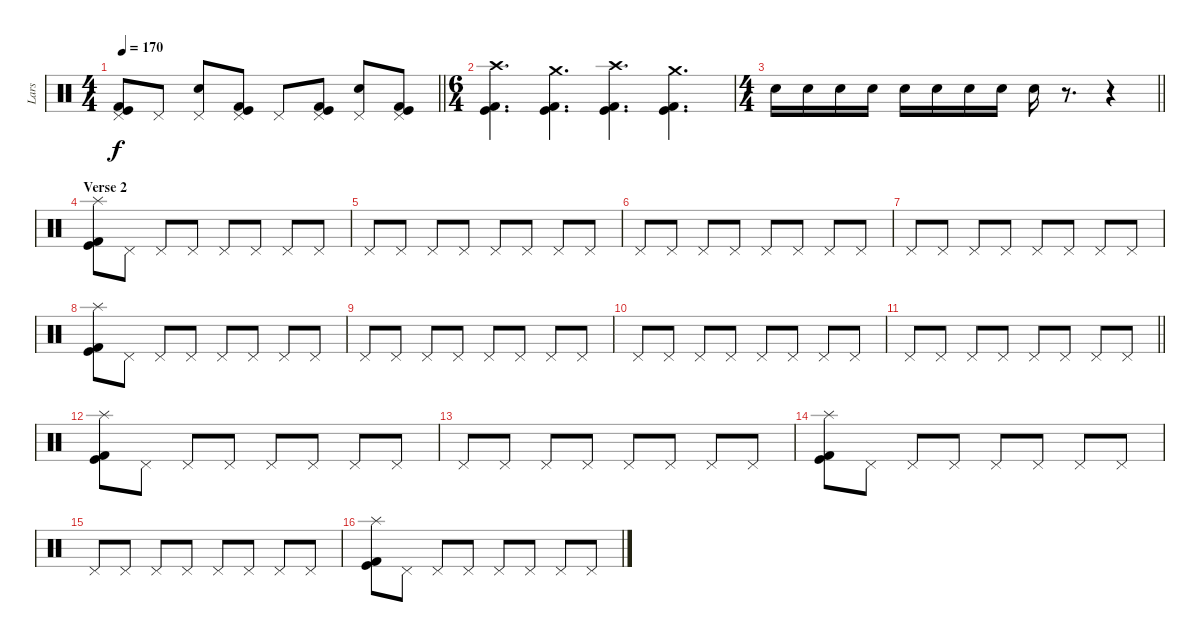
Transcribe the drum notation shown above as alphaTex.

\track ("Lars" "Lars") {instrument percussion}
\staff {score}
\articulation defaults
\ts (4 4)
\tempo 170
\clef neutral
\barLineRight lightlight
\ks c
("Pedal Hi-Hat (hit)" "Kick (hit)" "Kick (hit) 2").8{dy f} "Pedal Hi-Hat (hit)".8 ("Pedal Hi-Hat (hit)" "Electric Snare (hit)").8 ("Pedal Hi-Hat (hit)" "Kick (hit)" "Kick (hit) 2").8 "Pedal Hi-Hat (hit)".8 ("Pedal Hi-Hat (hit)" "Kick (hit)" "Kick (hit) 2").8 ("Pedal Hi-Hat (hit)" "Electric Snare (hit)").8 ("Pedal Hi-Hat (hit)" "Kick (hit)" "Kick (hit) 2").8 |
\ts (6 4)
\section ("" "")
("Crash high (hit)" "Kick (hit)" "Kick (hit) 2").4{d} ("Crash medium (hit)" "Kick (hit)" "Kick (hit) 2").4{d} ("Crash high (hit)" "Kick (hit)" "Kick (hit) 2").4{d} ("Crash medium (hit)" "Kick (hit)" "Kick (hit) 2").4{d} |
\ts (4 4)
\barLineRight lightlight "Electric Snare (hit)".16 "Electric Snare (hit)".16 "Electric Snare (hit)".16 "Electric Snare (hit)".16 "Electric Snare (hit)".16 "Electric Snare (hit)".16 "Electric Snare (hit)".16 "Electric Snare (hit)".16 "Electric Snare (hit)".16
r.8{d} r.4 |
\section ("" "Verse 2")
("Splash (hit)" "Kick (hit)" "Kick (hit) 2").8 "Pedal Hi-Hat (hit)".8 "Pedal Hi-Hat (hit)".8 "Pedal Hi-Hat (hit)".8 "Pedal Hi-Hat (hit)".8 "Pedal Hi-Hat (hit)".8 "Pedal Hi-Hat (hit)".8 "Pedal Hi-Hat (hit)".8 |
"Pedal Hi-Hat (hit)".8 "Pedal Hi-Hat (hit)".8 "Pedal Hi-Hat (hit)".8 "Pedal Hi-Hat (hit)".8 "Pedal Hi-Hat (hit)".8 "Pedal Hi-Hat (hit)".8 "Pedal Hi-Hat (hit)".8 "Pedal Hi-Hat (hit)".8 |
"Pedal Hi-Hat (hit)".8 "Pedal Hi-Hat (hit)".8 "Pedal Hi-Hat (hit)".8 "Pedal Hi-Hat (hit)".8 "Pedal Hi-Hat (hit)".8 "Pedal Hi-Hat (hit)".8 "Pedal Hi-Hat (hit)".8 "Pedal Hi-Hat (hit)".8 |
"Pedal Hi-Hat (hit)".8 "Pedal Hi-Hat (hit)".8 "Pedal Hi-Hat (hit)".8 "Pedal Hi-Hat (hit)".8 "Pedal Hi-Hat (hit)".8 "Pedal Hi-Hat (hit)".8 "Pedal Hi-Hat (hit)".8 "Pedal Hi-Hat (hit)".8 |
("Splash (hit)" "Kick (hit)" "Kick (hit) 2").8 "Pedal Hi-Hat (hit)".8 "Pedal Hi-Hat (hit)".8 "Pedal Hi-Hat (hit)".8 "Pedal Hi-Hat (hit)".8 "Pedal Hi-Hat (hit)".8 "Pedal Hi-Hat (hit)".8 "Pedal Hi-Hat (hit)".8 |
"Pedal Hi-Hat (hit)".8 "Pedal Hi-Hat (hit)".8 "Pedal Hi-Hat (hit)".8 "Pedal Hi-Hat (hit)".8 "Pedal Hi-Hat (hit)".8 "Pedal Hi-Hat (hit)".8 "Pedal Hi-Hat (hit)".8 "Pedal Hi-Hat (hit)".8 |
"Pedal Hi-Hat (hit)".8 "Pedal Hi-Hat (hit)".8 "Pedal Hi-Hat (hit)".8 "Pedal Hi-Hat (hit)".8 "Pedal Hi-Hat (hit)".8 "Pedal Hi-Hat (hit)".8 "Pedal Hi-Hat (hit)".8 "Pedal Hi-Hat (hit)".8 |
\barLineRight lightlight "Pedal Hi-Hat (hit)".8 "Pedal Hi-Hat (hit)".8 "Pedal Hi-Hat (hit)".8 "Pedal Hi-Hat (hit)".8 "Pedal Hi-Hat (hit)".8 "Pedal Hi-Hat (hit)".8 "Pedal Hi-Hat (hit)".8 "Pedal Hi-Hat (hit)".8
|
\section ("" "")
("Splash (hit)" "Kick (hit)" "Kick (hit) 2").8 "Pedal Hi-Hat (hit)".8 "Pedal Hi-Hat (hit)".8 "Pedal Hi-Hat (hit)".8 "Pedal Hi-Hat (hit)".8 "Pedal Hi-Hat (hit)".8 "Pedal Hi-Hat (hit)".8 "Pedal Hi-Hat (hit)".8 |
"Pedal Hi-Hat (hit)".8 "Pedal Hi-Hat (hit)".8 "Pedal Hi-Hat (hit)".8 "Pedal Hi-Hat (hit)".8 "Pedal Hi-Hat (hit)".8 "Pedal Hi-Hat (hit)".8 "Pedal Hi-Hat (hit)".8 "Pedal Hi-Hat (hit)".8 |
("Splash (hit)" "Kick (hit)" "Kick (hit) 2").8 "Pedal Hi-Hat (hit)".8 "Pedal Hi-Hat (hit)".8 "Pedal Hi-Hat (hit)".8 "Pedal Hi-Hat (hit)".8 "Pedal Hi-Hat (hit)".8 "Pedal Hi-Hat (hit)".8 "Pedal Hi-Hat (hit)".8 |
"Pedal Hi-Hat (hit)".8 "Pedal Hi-Hat (hit)".8 "Pedal Hi-Hat (hit)".8 "Pedal Hi-Hat (hit)".8 "Pedal Hi-Hat (hit)".8 "Pedal Hi-Hat (hit)".8 "Pedal Hi-Hat (hit)".8 "Pedal Hi-Hat (hit)".8 |
("Splash (hit)" "Kick (hit)" "Kick (hit) 2").8 "Pedal Hi-Hat (hit)".8 "Pedal Hi-Hat (hit)".8 "Pedal Hi-Hat (hit)".8 "Pedal Hi-Hat (hit)".8 "Pedal Hi-Hat (hit)".8 "Pedal Hi-Hat (hit)".8 "Pedal Hi-Hat (hit)".8
